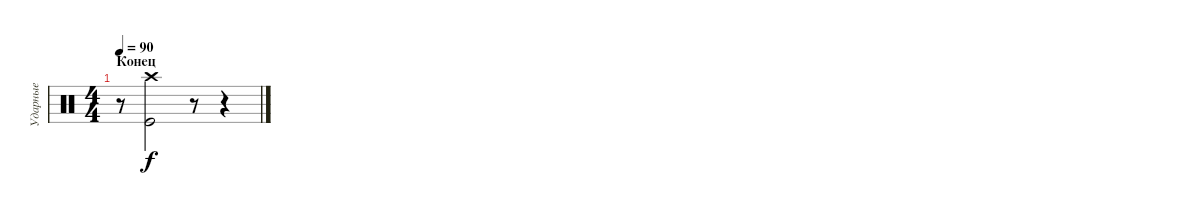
\track ("Ударные" "Ударные") {instrument percussion}
\staff {score}
\articulation defaults
\ts (4 4)
\section ("" "Конец")
\tempo 90
\clef neutral
\ks c
r.8{dy f} ("Crash high (hit)" "Kick (hit)").2 r.8 r.4
